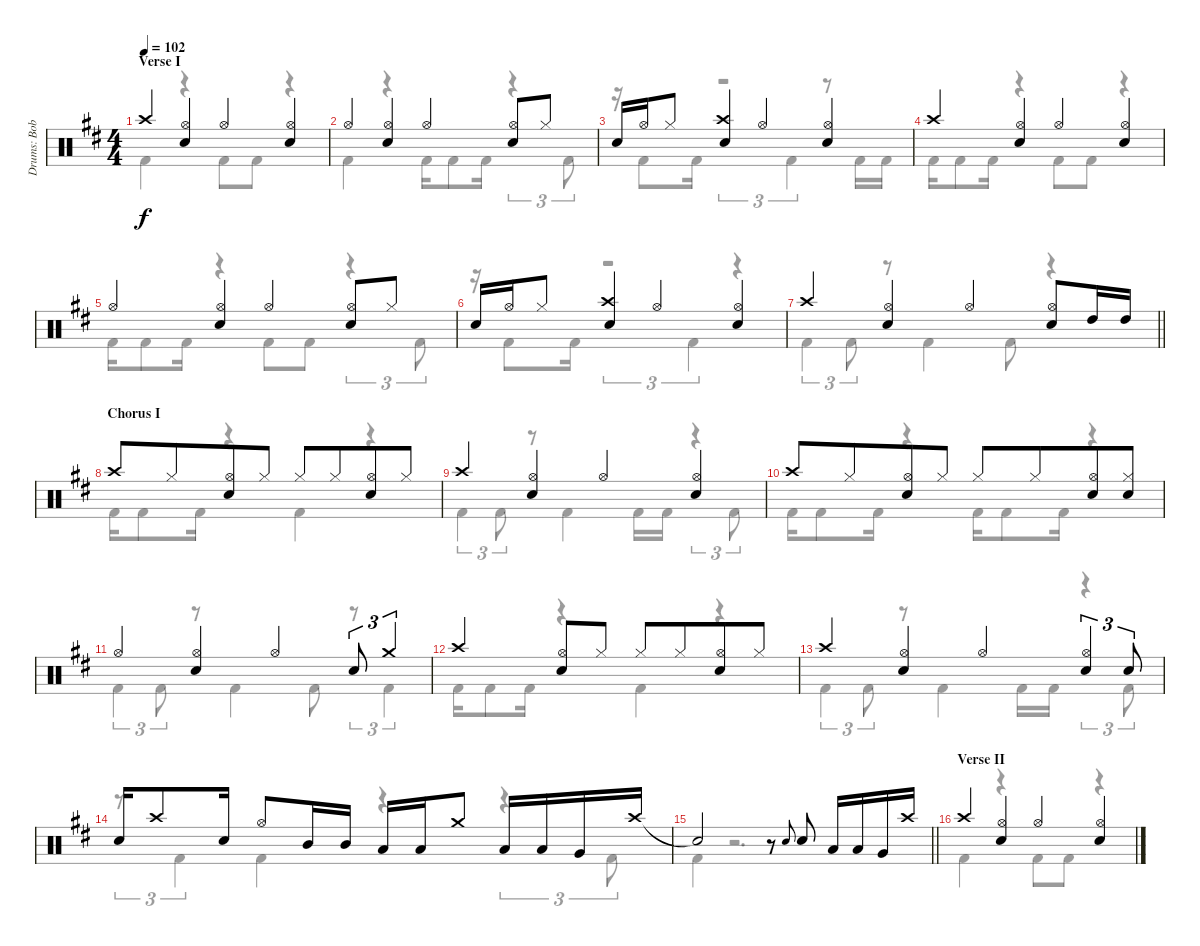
\track ("Drums: Bobby" "Drums: Bob") {instrument percussion}
\staff {score}
\articulation defaults
\voice
\ts (4 4)
\section ("" "Verse I")
\tempo 102
\clef neutral
\ks d "Crash high (hit)".4{dy f}
("Hi-Hat (open)" "Snare (hit) 2").4 "Hi-Hat (open)".4 ("Hi-Hat (open)" "Snare (hit) 2").4 |
"Hi-Hat (open)".4 ("Hi-Hat (open)" "Snare (hit) 2").4 "Hi-Hat (open)".4 ("Hi-Hat (open)" "Snare (hit) 2").8 "Hi-Hat (closed)".8 |
"Snare (hit) 2".16 "Hi-Hat (open)".16 "Hi-Hat (closed)".8 ("Crash high (hit)" "Snare (hit) 2").4 "Hi-Hat (open)".4 ("Hi-Hat (open)" "Snare (hit) 2").4 |
"Crash high (hit)".4 ("Hi-Hat (open)" "Snare (hit) 2").4 "Hi-Hat (open)".4 ("Hi-Hat (open)" "Snare (hit) 2").4 |
"Hi-Hat (open)".4 ("Hi-Hat (open)" "Snare (hit) 2").4 "Hi-Hat (open)".4 ("Hi-Hat (open)" "Snare (hit) 2").8 "Hi-Hat (closed)".8 |
"Snare (hit) 2".16 "Hi-Hat (open)".16 "Hi-Hat (closed)".8 ("Crash high (hit)" "Snare (hit) 2").4 "Hi-Hat (open)".4 ("Hi-Hat (open)" "Snare (hit) 2").4 |
\barLineRight lightlight "Crash high (hit)".4
("Hi-Hat (open)" "Snare (hit) 2").4 "Hi-Hat (open)".4 ("Hi-Hat (open)" "Snare (hit) 2").8 "High Tom (hit)".16 "High Tom (hit)".16 |
\section ("" "Chorus I")
"Crash high (hit)".8 "Hi-Hat (closed)".8{beam merge} ("Hi-Hat (open)" "Snare (hit) 2").8 "Hi-Hat (closed)".8 "Hi-Hat (closed)".8 "Hi-Hat (closed)".8{beam merge} ("Hi-Hat (open)" "Snare (hit) 2").8 "Hi-Hat (closed)".8 |
"Crash high (hit)".4 ("Hi-Hat (open)" "Snare (hit) 2").4 "Hi-Hat (open)".4 ("Hi-Hat (open)" "Snare (hit) 2").4 |
"Crash high (hit)".8 "Hi-Hat (closed)".8{beam merge} ("Hi-Hat (open)" "Snare (hit) 2").8 "Hi-Hat (closed)".8 "Hi-Hat (closed)".8 "Hi-Hat (closed)".8{beam merge} ("Hi-Hat (open)" "Snare (hit) 2").8 ("Hi-Hat (closed)" "Snare (hit)").8 |
"Hi-Hat (open)".4 ("Hi-Hat (open)" "Snare (hit) 2").4 "Hi-Hat (open)".4 "Snare (hit) 2".8{tu (3 2)} "Crash medium (hit)".4{tu (3 2)} |
"Crash high (hit)".4{beam merge} ("Hi-Hat (open)" "Snare (hit) 2").8 "Hi-Hat (closed)".8 "Hi-Hat (closed)".8 "Hi-Hat (closed)".8{beam merge} ("Hi-Hat (open)" "Snare (hit) 2").8 "Hi-Hat (closed)".8 |
"Crash high (hit)".4 ("Hi-Hat (open)" "Snare (hit) 2").4 "Hi-Hat (open)".4 ("Hi-Hat (open)" "Snare (hit) 2").4{tu (3 2)} "Snare (hit) 2".8{tu (3 2)} |
"Snare (hit) 2".16 "Crash high (hit)".8 "Snare (hit) 2".16 "Hi-Hat (open)".8 "Mid Tom (hit)".16 "Mid Tom (hit)".16 "Low Tom (hit)".16 "Low Tom (hit)".16 "Crash medium (hit)".8 "Low Tom (hit)".16 "Low Tom (hit)".16 "Very Low Tom (hit)".16 "Crash high (hit)".16 |
\barLineRight lightlight "Snare (hit)"{t}.2
r.8 "Electric Snare (hit)".8{gr onbeat} "Snare (hit) 2".8 "Low Tom (hit)".16 "Low Tom (hit)".16 "Very Low Tom (hit)".16 "Crash high (hit)".16 |
\section ("" "Verse II")
"Crash high (hit)".4 ("Hi-Hat (open)" "Snare (hit) 2").4 "Hi-Hat (open)".4 ("Hi-Hat (open)" "Snare (hit) 2").4
\voice
\clef neutral
\ottava regular
\simile none
\ks d "Kick (hit) 2".4{dy f}
r.4 "Kick (hit) 2".8 "Kick (hit) 2".8 r.4 |
"Kick (hit) 2".4 r.4 "Kick (hit) 2".16 "Kick (hit) 2".8 "Kick (hit) 2".16 r.4{tu (3 2)} "Kick (hit) 2".8{tu (3 2)} |
r.16 "Kick (hit) 2".8 "Kick (hit) 2".16 r.2{tu (3 2)} "Kick (hit) 2".4{tu (3 2)} r.8 "Kick (hit) 2".16 "Kick (hit) 2".16 |
"Kick (hit) 2".16 "Kick (hit) 2".8 "Kick (hit) 2".16 r.4 "Kick (hit) 2".8 "Kick (hit) 2".8 r.4 |
"Kick (hit) 2".16 "Kick (hit) 2".8 "Kick (hit) 2".16 r.4 "Kick (hit) 2".8 "Kick (hit) 2".8 r.4{tu (3 2)} "Kick (hit) 2".8{tu (3 2)} |
r.16 "Kick (hit) 2".8 "Kick (hit) 2".16 r.2{tu (3 2)} "Kick (hit) 2".4{tu (3 2)} r.4 |
\barLineRight lightlight "Kick (hit) 2".4{tu (3 2)} "Kick (hit) 2".8{tu (3 2)}
r.8 "Kick (hit) 2".4 "Kick (hit) 2".8 r.4 |
"Kick (hit) 2".16 "Kick (hit) 2".8 "Kick (hit) 2".16 r.4 "Kick (hit) 2".4 r.4 |
"Kick (hit) 2".4{tu (3 2)} "Kick (hit) 2".8{tu (3 2)} r.8 "Kick (hit) 2".4 "Kick (hit) 2".16 "Kick (hit) 2".16 r.4{tu (3 2)} "Kick (hit) 2".8{tu (3 2)} |
"Kick (hit) 2".16 "Kick (hit) 2".8 "Kick (hit) 2".16 r.4 "Kick (hit) 2".16 "Kick (hit) 2".8 "Kick (hit) 2".16 r.4 |
"Kick (hit) 2".4{tu (3 2)} "Kick (hit) 2".8{tu (3 2)} r.8 "Kick (hit) 2".4 "Kick (hit) 2".8 r.8{tu (3 2)} "Kick (hit) 2".4{tu (3 2)} |
"Kick (hit) 2".16 "Kick (hit) 2".8 "Kick (hit) 2".16 r.4 "Kick (hit) 2".4 r.4 |
"Kick (hit) 2".4{tu (3 2)} "Kick (hit) 2".8{tu (3 2)} r.8 "Kick (hit) 2".4 "Kick (hit) 2".16 "Kick (hit) 2".16 r.4{tu (3 2)} "Kick (hit) 2".8{tu (3 2)} |
r.8{tu (3 2)} "Kick (hit) 2".4{tu (3 2)} "Kick (hit) 2".4 r.4 r.4{tu (3 2)} "Kick (hit) 2".8{tu (3 2)} |
\barLineRight lightlight "Kick (hit) 2".4
r.2{d} |
"Kick (hit) 2".4 r.4 "Kick (hit) 2".8 "Kick (hit) 2".8 r.4
